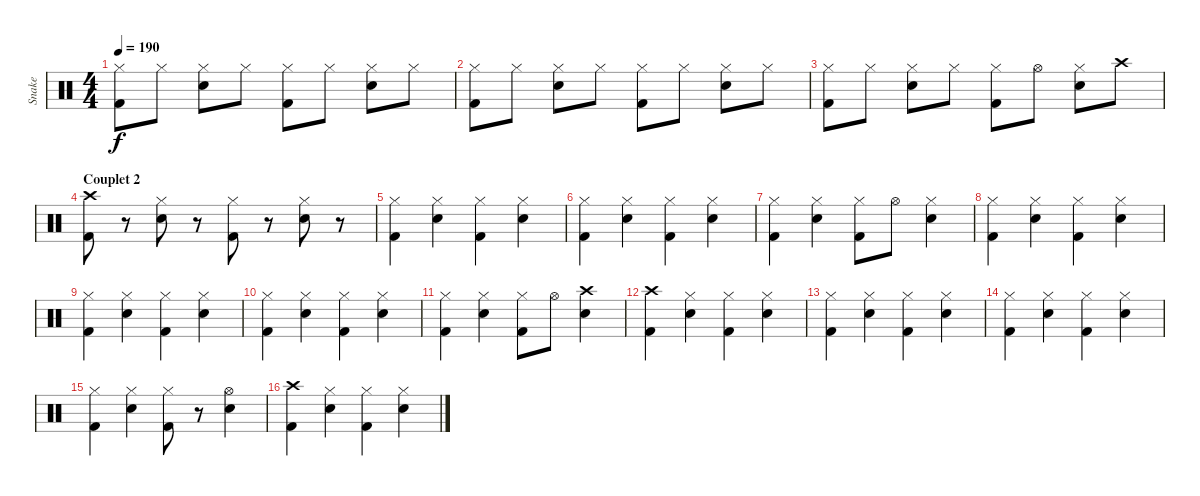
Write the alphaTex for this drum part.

\track ("Snake" "Snake") {instrument percussion}
\staff {score}
\articulation defaults
\ts (4 4)
\tempo 190
\clef neutral
\ks c
("Hi-Hat (closed)" "Kick (hit) 2").8{dy f} "Hi-Hat (closed)".8 ("Hi-Hat (closed)" "Snare (hit) 2").8 "Hi-Hat (closed)".8 ("Hi-Hat (closed)" "Kick (hit) 2").8 "Hi-Hat (closed)".8 ("Hi-Hat (closed)" "Snare (hit) 2").8 "Hi-Hat (closed)".8 |
("Hi-Hat (closed)" "Kick (hit) 2").8 "Hi-Hat (closed)".8 ("Hi-Hat (closed)" "Snare (hit) 2").8 "Hi-Hat (closed)".8 ("Hi-Hat (closed)" "Kick (hit) 2").8 "Hi-Hat (closed)".8 ("Hi-Hat (closed)" "Snare (hit) 2").8 "Hi-Hat (closed)".8 |
("Hi-Hat (closed)" "Kick (hit) 2").8 "Hi-Hat (closed)".8 ("Hi-Hat (closed)" "Snare (hit) 2").8 "Hi-Hat (closed)".8 ("Hi-Hat (closed)" "Kick (hit) 2").8 "Hi-Hat (open)".8 ("Hi-Hat (closed)" "Snare (hit) 2").8 "Crash high (hit)".8 |
\section ("" "Couplet 2")
("Crash high (hit)" "Kick (hit) 2").8 r.8 ("Hi-Hat (closed)" "Snare (hit) 2").8 r.8 ("Hi-Hat (closed)" "Kick (hit) 2").8 r.8 ("Hi-Hat (closed)" "Snare (hit) 2").8 r.8 |
("Hi-Hat (closed)" "Kick (hit) 2").4 ("Hi-Hat (closed)" "Snare (hit) 2").4 ("Hi-Hat (closed)" "Kick (hit) 2").4 ("Hi-Hat (closed)" "Snare (hit) 2").4 |
("Hi-Hat (closed)" "Kick (hit) 2").4 ("Hi-Hat (closed)" "Snare (hit) 2").4 ("Hi-Hat (closed)" "Kick (hit) 2").4 ("Hi-Hat (closed)" "Snare (hit) 2").4 |
("Hi-Hat (closed)" "Kick (hit) 2").4 ("Hi-Hat (closed)" "Snare (hit) 2").4 ("Hi-Hat (closed)" "Kick (hit) 2").8 "Hi-Hat (open)".8 ("Hi-Hat (closed)" "Snare (hit) 2").4 |
("Hi-Hat (closed)" "Kick (hit) 2").4 ("Hi-Hat (closed)" "Snare (hit) 2").4 ("Hi-Hat (closed)" "Kick (hit) 2").4 ("Hi-Hat (closed)" "Snare (hit) 2").4 |
("Hi-Hat (closed)" "Kick (hit) 2").4 ("Hi-Hat (closed)" "Snare (hit) 2").4 ("Hi-Hat (closed)" "Kick (hit) 2").4 ("Hi-Hat (closed)" "Snare (hit) 2").4 |
("Hi-Hat (closed)" "Kick (hit) 2").4 ("Hi-Hat (closed)" "Snare (hit) 2").4 ("Hi-Hat (closed)" "Kick (hit) 2").4 ("Hi-Hat (closed)" "Snare (hit) 2").4 |
("Hi-Hat (closed)" "Kick (hit) 2").4 ("Hi-Hat (closed)" "Snare (hit) 2").4 ("Hi-Hat (closed)" "Kick (hit) 2").8 "Hi-Hat (open)".8 ("Crash high (hit)" "Snare (hit) 2").4 |
("Crash high (hit)" "Kick (hit) 2").4 ("Hi-Hat (closed)" "Snare (hit) 2").4 ("Hi-Hat (closed)" "Kick (hit) 2").4 ("Hi-Hat (closed)" "Snare (hit) 2").4 |
("Hi-Hat (closed)" "Kick (hit) 2").4 ("Hi-Hat (closed)" "Snare (hit) 2").4 ("Hi-Hat (closed)" "Kick (hit) 2").4 ("Hi-Hat (closed)" "Snare (hit) 2").4 |
("Hi-Hat (closed)" "Kick (hit) 2").4 ("Hi-Hat (closed)" "Snare (hit) 2").4 ("Hi-Hat (closed)" "Kick (hit) 2").4 ("Hi-Hat (closed)" "Snare (hit) 2").4 |
("Hi-Hat (closed)" "Kick (hit) 2").4 ("Hi-Hat (closed)" "Snare (hit) 2").4 ("Hi-Hat (closed)" "Kick (hit) 2").8 r.8 ("Hi-Hat (open)" "Snare (hit) 2").4 |
("Crash high (hit)" "Kick (hit) 2").4 ("Hi-Hat (closed)" "Snare (hit) 2").4 ("Hi-Hat (closed)" "Kick (hit) 2").4 ("Hi-Hat (closed)" "Snare (hit) 2").4
